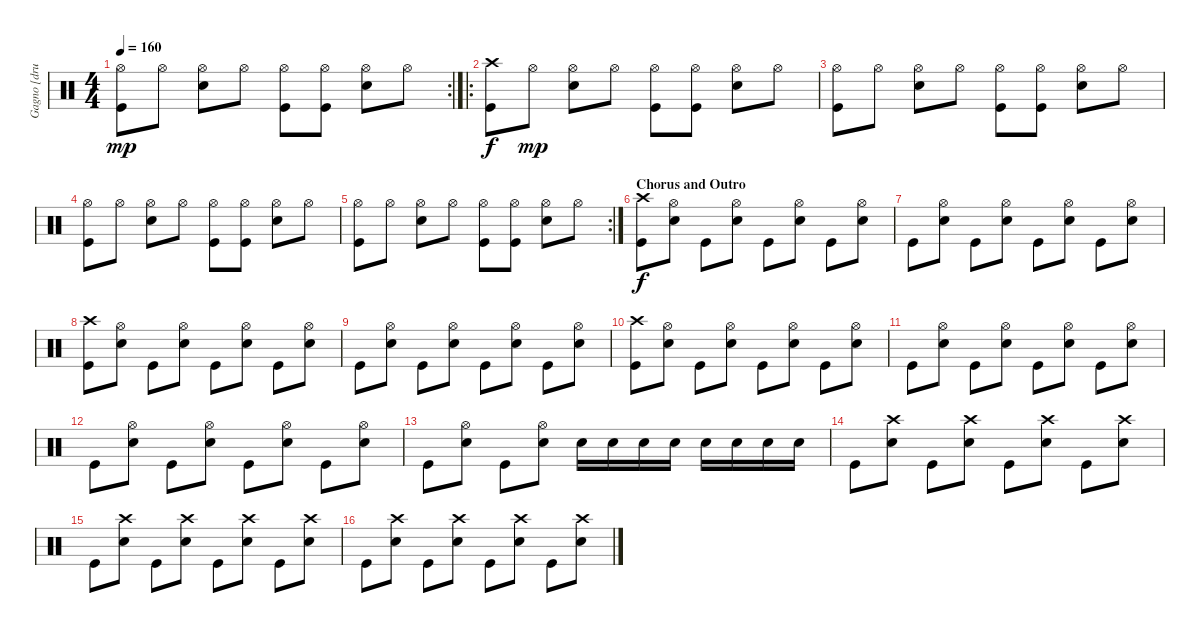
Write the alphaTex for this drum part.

\track ("Gagno [drums]" "Gagno [dru") {instrument percussion}
\staff {score}
\articulation defaults
\rc 2
\ts (4 4)
\tempo 160
\clef neutral
\ks c
("Hi-Hat (open)" "Kick (hit)").8{dy mp} "Hi-Hat (open)".8 ("Hi-Hat (open)" "Snare (hit) 2").8 "Hi-Hat (open)".8 ("Hi-Hat (open)" "Kick (hit)").8 ("Hi-Hat (open)" "Kick (hit)").8 ("Hi-Hat (open)" "Snare (hit) 2").8 "Hi-Hat (open)".8 |
\ro
("Crash high (hit)" "Kick (hit)").8{dy f} "Hi-Hat (open)".8{dy mp} ("Hi-Hat (open)" "Snare (hit) 2").8 "Hi-Hat (open)".8 ("Hi-Hat (open)" "Kick (hit)").8 ("Hi-Hat (open)" "Kick (hit)").8 ("Hi-Hat (open)" "Snare (hit) 2").8 "Hi-Hat (open)".8 |
("Hi-Hat (open)" "Kick (hit)").8 "Hi-Hat (open)".8 ("Hi-Hat (open)" "Snare (hit) 2").8 "Hi-Hat (open)".8 ("Hi-Hat (open)" "Kick (hit)").8 ("Hi-Hat (open)" "Kick (hit)").8 ("Hi-Hat (open)" "Snare (hit) 2").8 "Hi-Hat (open)".8 |
("Hi-Hat (open)" "Kick (hit)").8 "Hi-Hat (open)".8 ("Hi-Hat (open)" "Snare (hit) 2").8 "Hi-Hat (open)".8 ("Hi-Hat (open)" "Kick (hit)").8 ("Hi-Hat (open)" "Kick (hit)").8 ("Hi-Hat (open)" "Snare (hit) 2").8 "Hi-Hat (open)".8 |
\rc 2
("Hi-Hat (open)" "Kick (hit)").8 "Hi-Hat (open)".8 ("Hi-Hat (open)" "Snare (hit) 2").8 "Hi-Hat (open)".8 ("Hi-Hat (open)" "Kick (hit)").8 ("Hi-Hat (open)" "Kick (hit)").8 ("Hi-Hat (open)" "Snare (hit) 2").8 "Hi-Hat (open)".8 |
\section ("" "Chorus and Outro")
("Crash high (hit)" "Kick (hit)").8{dy f} ("Hi-Hat (open)" "Snare (hit) 2").8 "Kick (hit)".8 ("Hi-Hat (open)" "Snare (hit) 2").8 "Kick (hit)".8 ("Hi-Hat (open)" "Snare (hit) 2").8 "Kick (hit)".8 ("Hi-Hat (open)" "Snare (hit) 2").8 |
"Kick (hit)".8 ("Hi-Hat (open)" "Snare (hit) 2").8 "Kick (hit)".8 ("Hi-Hat (open)" "Snare (hit) 2").8 "Kick (hit)".8 ("Hi-Hat (open)" "Snare (hit) 2").8 "Kick (hit)".8 ("Hi-Hat (open)" "Snare (hit) 2").8 |
("Crash high (hit)" "Kick (hit)").8 ("Hi-Hat (open)" "Snare (hit) 2").8 "Kick (hit)".8 ("Hi-Hat (open)" "Snare (hit) 2").8 "Kick (hit)".8 ("Hi-Hat (open)" "Snare (hit) 2").8 "Kick (hit)".8 ("Hi-Hat (open)" "Snare (hit) 2").8 |
"Kick (hit)".8 ("Hi-Hat (open)" "Snare (hit) 2").8 "Kick (hit)".8 ("Hi-Hat (open)" "Snare (hit) 2").8 "Kick (hit)".8 ("Hi-Hat (open)" "Snare (hit) 2").8 "Kick (hit)".8 ("Hi-Hat (open)" "Snare (hit) 2").8 |
("Crash high (hit)" "Kick (hit)").8 ("Hi-Hat (open)" "Snare (hit) 2").8 "Kick (hit)".8 ("Hi-Hat (open)" "Snare (hit) 2").8 "Kick (hit)".8 ("Hi-Hat (open)" "Snare (hit) 2").8 "Kick (hit)".8 ("Hi-Hat (open)" "Snare (hit) 2").8 |
"Kick (hit)".8 ("Hi-Hat (open)" "Snare (hit) 2").8 "Kick (hit)".8 ("Hi-Hat (open)" "Snare (hit) 2").8 "Kick (hit)".8 ("Hi-Hat (open)" "Snare (hit) 2").8 "Kick (hit)".8 ("Hi-Hat (open)" "Snare (hit) 2").8 |
"Kick (hit)".8 ("Hi-Hat (open)" "Snare (hit) 2").8 "Kick (hit)".8 ("Hi-Hat (open)" "Snare (hit) 2").8 "Kick (hit)".8 ("Hi-Hat (open)" "Snare (hit) 2").8 "Kick (hit)".8 ("Hi-Hat (open)" "Snare (hit) 2").8 |
"Kick (hit)".8 ("Hi-Hat (open)" "Snare (hit) 2").8 "Kick (hit)".8 ("Hi-Hat (open)" "Snare (hit) 2").8 "Snare (hit) 2".16 "Snare (hit) 2".16 "Snare (hit) 2".16 "Snare (hit) 2".16 "Snare (hit) 2".16 "Snare (hit) 2".16 "Snare (hit) 2".16 "Snare (hit) 2".16 |
"Kick (hit)".8 ("Crash high (hit)" "Snare (hit) 2").8 "Kick (hit)".8 ("Crash high (hit)" "Snare (hit) 2").8 "Kick (hit)".8 ("Crash high (hit)" "Snare (hit) 2").8 "Kick (hit)".8 ("Crash high (hit)" "Snare (hit) 2").8 |
"Kick (hit)".8 ("Crash high (hit)" "Snare (hit) 2").8 "Kick (hit)".8 ("Crash high (hit)" "Snare (hit) 2").8 "Kick (hit)".8 ("Crash high (hit)" "Snare (hit) 2").8 "Kick (hit)".8 ("Crash high (hit)" "Snare (hit) 2").8 |
"Kick (hit)".8 ("Crash high (hit)" "Snare (hit) 2").8 "Kick (hit)".8 ("Crash high (hit)" "Snare (hit) 2").8 "Kick (hit)".8 ("Crash high (hit)" "Snare (hit) 2").8 "Kick (hit)".8 ("Crash high (hit)" "Snare (hit) 2").8
